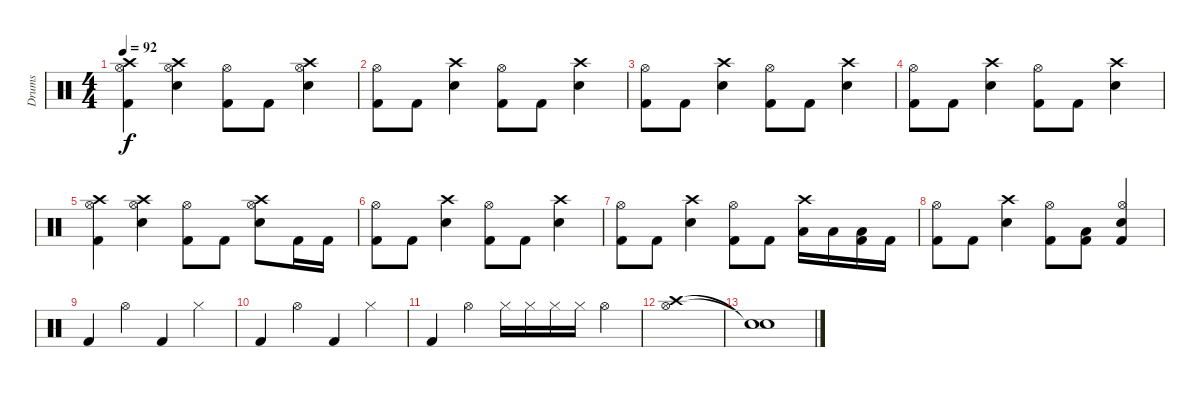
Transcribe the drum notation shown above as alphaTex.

\track ("Drums" "Drums") {instrument percussion}
\staff {score}
\articulation defaults
\ts (4 4)
\tempo 92
\clef neutral
\ks c
("Kick (hit) 2" "Hi-Hat (open)" "Crash high (hit)").4{dy f} ("Electric Snare (hit)" "Hi-Hat (open)" "Crash high (hit)").4 ("Kick (hit) 2" "Hi-Hat (open)").8 "Kick (hit) 2".8 ("Electric Snare (hit)" "Hi-Hat (open)" "Crash high (hit)").4 |
("Kick (hit) 2" "Hi-Hat (open)").8 "Kick (hit) 2".8 ("Electric Snare (hit)" "Crash high (hit)").4 ("Kick (hit) 2" "Hi-Hat (open)").8 "Kick (hit) 2".8 ("Electric Snare (hit)" "Crash high (hit)").4 |
("Kick (hit) 2" "Hi-Hat (open)").8 "Kick (hit) 2".8 ("Electric Snare (hit)" "Crash high (hit)").4 ("Kick (hit) 2" "Hi-Hat (open)").8 "Kick (hit) 2".8 ("Electric Snare (hit)" "Crash high (hit)").4 |
("Kick (hit) 2" "Hi-Hat (open)").8 "Kick (hit) 2".8 ("Electric Snare (hit)" "Crash high (hit)").4 ("Kick (hit) 2" "Hi-Hat (open)").8 "Kick (hit) 2".8 ("Electric Snare (hit)" "Crash high (hit)").4 |
("Kick (hit) 2" "Hi-Hat (open)" "Crash high (hit)").4 ("Electric Snare (hit)" "Hi-Hat (open)" "Crash high (hit)").4 ("Kick (hit) 2" "Hi-Hat (open)").8 "Kick (hit) 2".8 ("Electric Snare (hit)" "Hi-Hat (open)" "Crash high (hit)").8 "Kick (hit) 2".16 "Kick (hit) 2".16 |
("Kick (hit) 2" "Hi-Hat (open)").8 "Kick (hit) 2".8 ("Electric Snare (hit)" "Crash high (hit)").4 ("Kick (hit) 2" "Hi-Hat (open)").8 "Kick (hit) 2".8 ("Electric Snare (hit)" "Crash high (hit)").4 |
("Kick (hit) 2" "Hi-Hat (open)").8 "Kick (hit) 2".8 ("Electric Snare (hit)" "Crash high (hit)").4 ("Kick (hit) 2" "Hi-Hat (open)").8 "Kick (hit) 2".8 ("Low Tom (hit)" "Crash high (hit)").16 "Low Tom (hit)".16 ("Kick (hit) 2" "Low Tom (hit)").16 "Kick (hit) 2".16 |
("Kick (hit) 2" "Hi-Hat (open)").8 "Kick (hit) 2".8 ("Electric Snare (hit)" "Crash high (hit)").4 ("Kick (hit) 2" "Hi-Hat (open)").8 ("Kick (hit) 2" "Low Tom (hit)").8 ("Kick (hit) 2" "Electric Snare (hit)" "Hi-Hat (open)").4 |
"Kick (hit) 2".4 "Hi-Hat (open)".4 "Kick (hit) 2".4 "Hi-Hat (closed)".4 |
"Kick (hit) 2".4 "Hi-Hat (open)".4 "Kick (hit) 2".4 "Hi-Hat (closed)".4 |
"Kick (hit) 2".4 "Hi-Hat (open)".4 "Hi-Hat (closed)".16 "Hi-Hat (closed)".16 "Hi-Hat (closed)".16 "Hi-Hat (closed)".16 "Hi-Hat (open)".4 |
("Hi-Hat (open)" "Crash high (hit)").1 |
("Snare (hit)"{t} "Snare (hit)"{t}).1
